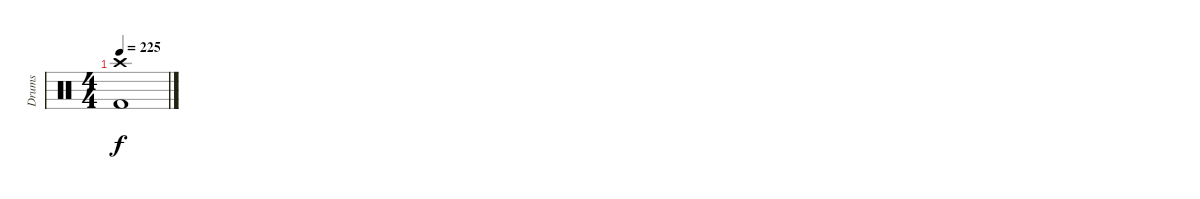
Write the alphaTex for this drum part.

\track ("Drums" "Drums") {instrument percussion}
\staff {score}
\articulation defaults
\ts (4 4)
\tempo 225
\clef neutral
\ks c
("Crash high (hit)" "Kick (hit) 2").1{dy f}
